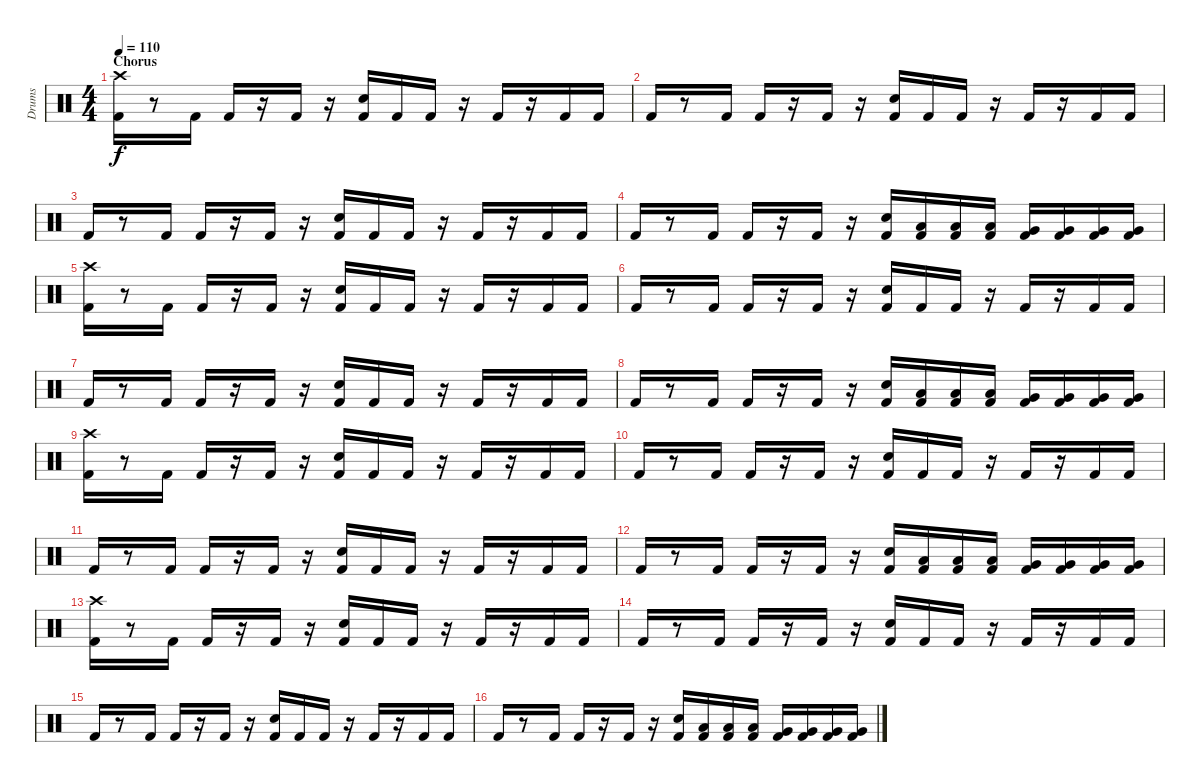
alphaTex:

\track ("Drums" "Drums") {instrument percussion}
\staff {score}
\articulation defaults
\ts (4 4)
\section ("" "Chorus")
\tempo 110
\clef neutral
\ks c
("Crash high (hit)" "Kick (hit) 2").16{dy f} r.8 "Kick (hit) 2".16 "Kick (hit) 2".16 r.16 "Kick (hit) 2".16 r.16 ("Electric Snare (hit)" "Kick (hit) 2").16 "Kick (hit) 2".16 "Kick (hit) 2".16 r.16 "Kick (hit) 2".16 r.16 "Kick (hit) 2".16 "Kick (hit) 2".16 |
"Kick (hit) 2".16 r.8 "Kick (hit) 2".16 "Kick (hit) 2".16 r.16 "Kick (hit) 2".16 r.16 ("Electric Snare (hit)" "Kick (hit) 2").16 "Kick (hit) 2".16 "Kick (hit) 2".16 r.16 "Kick (hit) 2".16 r.16 "Kick (hit) 2".16 "Kick (hit) 2".16 |
"Kick (hit) 2".16 r.8 "Kick (hit) 2".16 "Kick (hit) 2".16 r.16 "Kick (hit) 2".16 r.16 ("Electric Snare (hit)" "Kick (hit) 2").16 "Kick (hit) 2".16 "Kick (hit) 2".16 r.16 "Kick (hit) 2".16 r.16 "Kick (hit) 2".16 "Kick (hit) 2".16 |
"Kick (hit) 2".16 r.8 "Kick (hit) 2".16 "Kick (hit) 2".16 r.16 "Kick (hit) 2".16 r.16 ("Electric Snare (hit)" "Kick (hit) 2").16 ("Low Tom (hit)" "Kick (hit) 2").16 ("Low Tom (hit)" "Kick (hit) 2").16 ("Low Tom (hit)" "Kick (hit) 2").16 ("Very Low Tom (hit)" "Kick (hit) 2").16 ("Very Low Tom (hit)" "Kick (hit) 2").16 ("Very Low Tom (hit)" "Kick (hit) 2").16 ("Very Low Tom (hit)" "Kick (hit) 2").16 |
("Crash high (hit)" "Kick (hit) 2").16 r.8 "Kick (hit) 2".16 "Kick (hit) 2".16 r.16 "Kick (hit) 2".16 r.16 ("Electric Snare (hit)" "Kick (hit) 2").16 "Kick (hit) 2".16 "Kick (hit) 2".16 r.16 "Kick (hit) 2".16 r.16 "Kick (hit) 2".16 "Kick (hit) 2".16 |
"Kick (hit) 2".16 r.8 "Kick (hit) 2".16 "Kick (hit) 2".16 r.16 "Kick (hit) 2".16 r.16 ("Electric Snare (hit)" "Kick (hit) 2").16 "Kick (hit) 2".16 "Kick (hit) 2".16 r.16 "Kick (hit) 2".16 r.16 "Kick (hit) 2".16 "Kick (hit) 2".16 |
"Kick (hit) 2".16 r.8 "Kick (hit) 2".16 "Kick (hit) 2".16 r.16 "Kick (hit) 2".16 r.16 ("Electric Snare (hit)" "Kick (hit) 2").16 "Kick (hit) 2".16 "Kick (hit) 2".16 r.16 "Kick (hit) 2".16 r.16 "Kick (hit) 2".16 "Kick (hit) 2".16 |
"Kick (hit) 2".16 r.8 "Kick (hit) 2".16 "Kick (hit) 2".16 r.16 "Kick (hit) 2".16 r.16 ("Electric Snare (hit)" "Kick (hit) 2").16 ("Low Tom (hit)" "Kick (hit) 2").16 ("Low Tom (hit)" "Kick (hit) 2").16 ("Low Tom (hit)" "Kick (hit) 2").16 ("Very Low Tom (hit)" "Kick (hit) 2").16 ("Very Low Tom (hit)" "Kick (hit) 2").16 ("Very Low Tom (hit)" "Kick (hit) 2").16 ("Very Low Tom (hit)" "Kick (hit) 2").16 |
("Crash high (hit)" "Kick (hit) 2").16 r.8 "Kick (hit) 2".16 "Kick (hit) 2".16 r.16 "Kick (hit) 2".16 r.16 ("Electric Snare (hit)" "Kick (hit) 2").16 "Kick (hit) 2".16 "Kick (hit) 2".16 r.16 "Kick (hit) 2".16 r.16 "Kick (hit) 2".16 "Kick (hit) 2".16 |
"Kick (hit) 2".16 r.8 "Kick (hit) 2".16 "Kick (hit) 2".16 r.16 "Kick (hit) 2".16 r.16 ("Electric Snare (hit)" "Kick (hit) 2").16 "Kick (hit) 2".16 "Kick (hit) 2".16 r.16 "Kick (hit) 2".16 r.16 "Kick (hit) 2".16 "Kick (hit) 2".16 |
"Kick (hit) 2".16 r.8 "Kick (hit) 2".16 "Kick (hit) 2".16 r.16 "Kick (hit) 2".16 r.16 ("Electric Snare (hit)" "Kick (hit) 2").16 "Kick (hit) 2".16 "Kick (hit) 2".16 r.16 "Kick (hit) 2".16 r.16 "Kick (hit) 2".16 "Kick (hit) 2".16 |
"Kick (hit) 2".16 r.8 "Kick (hit) 2".16 "Kick (hit) 2".16 r.16 "Kick (hit) 2".16 r.16 ("Electric Snare (hit)" "Kick (hit) 2").16 ("Low Tom (hit)" "Kick (hit) 2").16 ("Low Tom (hit)" "Kick (hit) 2").16 ("Low Tom (hit)" "Kick (hit) 2").16 ("Very Low Tom (hit)" "Kick (hit) 2").16 ("Very Low Tom (hit)" "Kick (hit) 2").16 ("Very Low Tom (hit)" "Kick (hit) 2").16 ("Very Low Tom (hit)" "Kick (hit) 2").16 |
("Crash high (hit)" "Kick (hit) 2").16 r.8 "Kick (hit) 2".16 "Kick (hit) 2".16 r.16 "Kick (hit) 2".16 r.16 ("Electric Snare (hit)" "Kick (hit) 2").16 "Kick (hit) 2".16 "Kick (hit) 2".16 r.16 "Kick (hit) 2".16 r.16 "Kick (hit) 2".16 "Kick (hit) 2".16 |
"Kick (hit) 2".16 r.8 "Kick (hit) 2".16 "Kick (hit) 2".16 r.16 "Kick (hit) 2".16 r.16 ("Electric Snare (hit)" "Kick (hit) 2").16 "Kick (hit) 2".16 "Kick (hit) 2".16 r.16 "Kick (hit) 2".16 r.16 "Kick (hit) 2".16 "Kick (hit) 2".16 |
"Kick (hit) 2".16 r.8 "Kick (hit) 2".16 "Kick (hit) 2".16 r.16 "Kick (hit) 2".16 r.16 ("Electric Snare (hit)" "Kick (hit) 2").16 "Kick (hit) 2".16 "Kick (hit) 2".16 r.16 "Kick (hit) 2".16 r.16 "Kick (hit) 2".16 "Kick (hit) 2".16 |
"Kick (hit) 2".16 r.8 "Kick (hit) 2".16 "Kick (hit) 2".16 r.16 "Kick (hit) 2".16 r.16 ("Electric Snare (hit)" "Kick (hit) 2").16 ("Low Tom (hit)" "Kick (hit) 2").16 ("Low Tom (hit)" "Kick (hit) 2").16 ("Low Tom (hit)" "Kick (hit) 2").16 ("Very Low Tom (hit)" "Kick (hit) 2").16 ("Very Low Tom (hit)" "Kick (hit) 2").16 ("Very Low Tom (hit)" "Kick (hit) 2").16 ("Very Low Tom (hit)" "Kick (hit) 2").16
